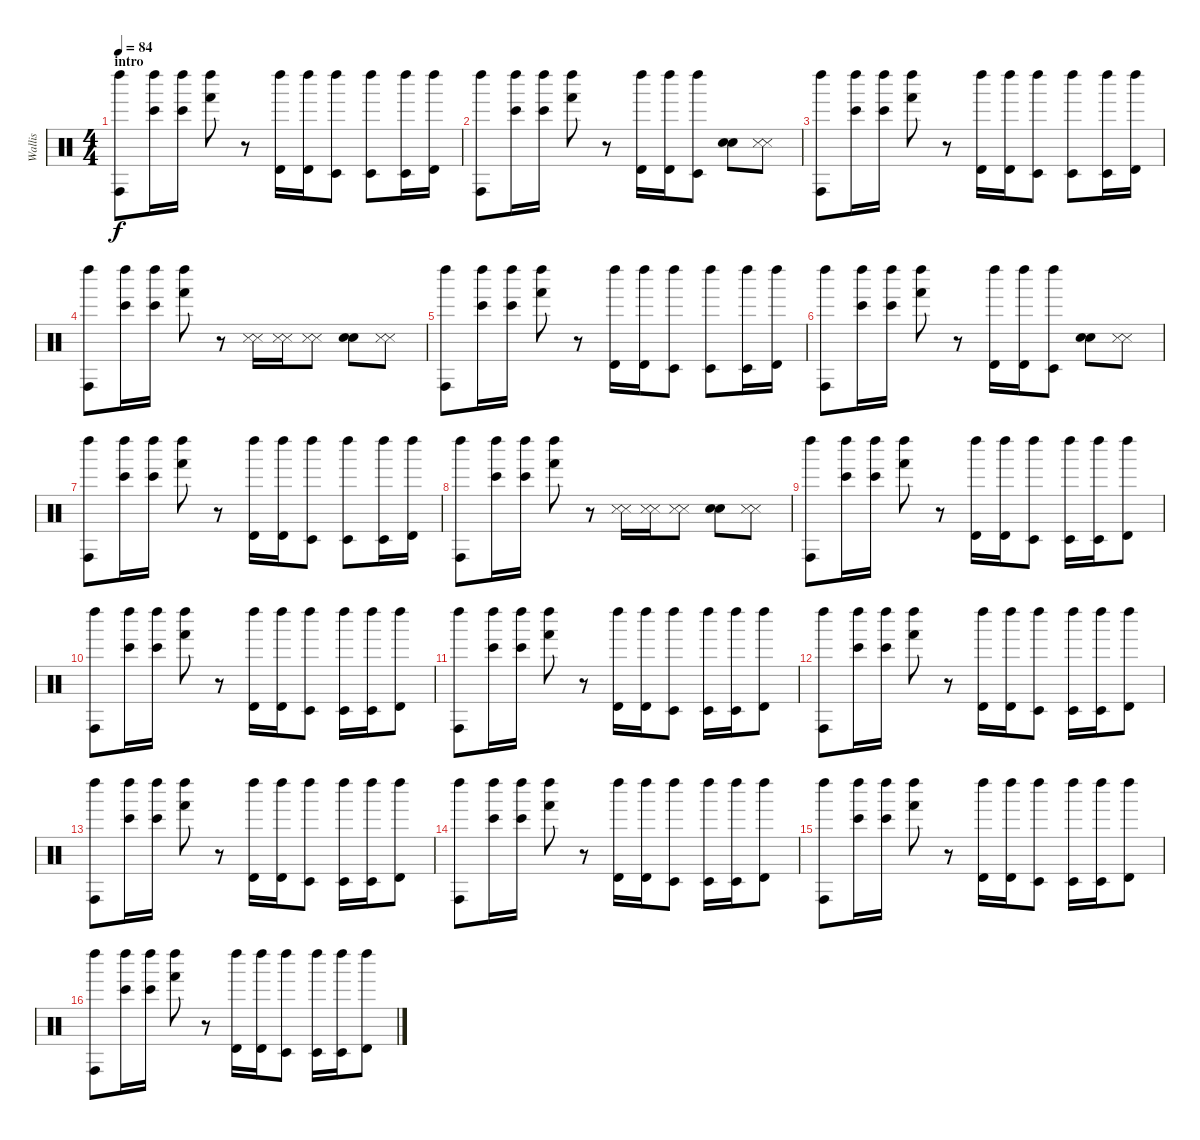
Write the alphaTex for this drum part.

\track ("Wallis" "Wallis") {instrument percussion}
\staff {score}
\articulation defaults
\ts (4 4)
\section ("" "intro")
\tempo 84
\clef neutral
\ks c
("Left Maraca (hit)" "Conga high (hit)").8{dy f} ("Left Maraca (hit)" "Bongo High (hit)").16 ("Left Maraca (hit)" "Bongo High (hit)").16 ("Left Maraca (hit)" "Hand (hit)").8 r.8 ("Left Maraca (hit)" "Timbale high (hit)").16 ("Left Maraca (hit)" "Timbale high (hit)").16 ("Left Maraca (hit)" "Timbale low (hit)").8 ("Left Maraca (hit)" "Timbale low (hit)").8 ("Left Maraca (hit)" "Timbale low (hit)").16 ("Left Maraca (hit)" "Timbale high (hit)").16 |
("Left Maraca (hit)" "Conga high (hit)").8 ("Left Maraca (hit)" "Bongo High (hit)").16 ("Left Maraca (hit)" "Bongo High (hit)").16 ("Left Maraca (hit)" "Hand (hit)").8 r.8 ("Left Maraca (hit)" "Timbale high (hit)").16 ("Left Maraca (hit)" "Timbale high (hit)").16 ("Left Maraca (hit)" "Timbale low (hit)").8 ("Snare (hit) 2" "Snare (hit) 2").8 ("Snare (side stick) 3" "Snare (side stick) 3").8 |
("Left Maraca (hit)" "Conga high (hit)").8 ("Left Maraca (hit)" "Bongo High (hit)").16 ("Left Maraca (hit)" "Bongo High (hit)").16 ("Left Maraca (hit)" "Hand (hit)").8 r.8 ("Left Maraca (hit)" "Timbale high (hit)").16 ("Left Maraca (hit)" "Timbale high (hit)").16 ("Left Maraca (hit)" "Timbale low (hit)").8 ("Left Maraca (hit)" "Timbale low (hit)").8 ("Left Maraca (hit)" "Timbale low (hit)").16 ("Left Maraca (hit)" "Timbale high (hit)").16 |
("Left Maraca (hit)" "Conga high (hit)").8 ("Left Maraca (hit)" "Bongo High (hit)").16 ("Left Maraca (hit)" "Bongo High (hit)").16 ("Left Maraca (hit)" "Hand (hit)").8 r.8 ("Snare (side stick) 3" "Snare (side stick) 3").16 ("Snare (side stick) 3" "Snare (side stick) 3").16 ("Snare (side stick) 3" "Snare (side stick) 3").8 ("Snare (hit) 2" "Snare (hit) 2").8 ("Snare (side stick) 3" "Snare (side stick) 3").8 |
("Left Maraca (hit)" "Conga high (hit)").8 ("Left Maraca (hit)" "Bongo High (hit)").16 ("Left Maraca (hit)" "Bongo High (hit)").16 ("Left Maraca (hit)" "Hand (hit)").8 r.8 ("Left Maraca (hit)" "Timbale high (hit)").16 ("Left Maraca (hit)" "Timbale high (hit)").16 ("Left Maraca (hit)" "Timbale low (hit)").8 ("Left Maraca (hit)" "Timbale low (hit)").8 ("Left Maraca (hit)" "Timbale low (hit)").16 ("Left Maraca (hit)" "Timbale high (hit)").16 |
("Left Maraca (hit)" "Conga high (hit)").8 ("Left Maraca (hit)" "Bongo High (hit)").16 ("Left Maraca (hit)" "Bongo High (hit)").16 ("Left Maraca (hit)" "Hand (hit)").8 r.8 ("Left Maraca (hit)" "Timbale high (hit)").16 ("Left Maraca (hit)" "Timbale high (hit)").16 ("Left Maraca (hit)" "Timbale low (hit)").8 ("Snare (hit) 2" "Snare (hit) 2").8 ("Snare (side stick) 3" "Snare (side stick) 3").8 |
("Left Maraca (hit)" "Conga high (hit)").8 ("Left Maraca (hit)" "Bongo High (hit)").16 ("Left Maraca (hit)" "Bongo High (hit)").16 ("Left Maraca (hit)" "Hand (hit)").8 r.8 ("Left Maraca (hit)" "Timbale high (hit)").16 ("Left Maraca (hit)" "Timbale high (hit)").16 ("Left Maraca (hit)" "Timbale low (hit)").8 ("Left Maraca (hit)" "Timbale low (hit)").8 ("Left Maraca (hit)" "Timbale low (hit)").16 ("Left Maraca (hit)" "Timbale high (hit)").16 |
("Left Maraca (hit)" "Conga high (hit)").8 ("Left Maraca (hit)" "Bongo High (hit)").16 ("Left Maraca (hit)" "Bongo High (hit)").16 ("Left Maraca (hit)" "Hand (hit)").8 r.8 ("Snare (side stick) 3" "Snare (side stick) 3").16 ("Snare (side stick) 3" "Snare (side stick) 3").16 ("Snare (side stick) 3" "Snare (side stick) 3").8 ("Snare (hit) 2" "Snare (hit) 2").8 ("Snare (side stick) 3" "Snare (side stick) 3").8 |
("Left Maraca (hit)" "Conga high (hit)").8 ("Left Maraca (hit)" "Bongo High (hit)").16 ("Left Maraca (hit)" "Bongo High (hit)").16 ("Left Maraca (hit)" "Hand (hit)").8 r.8 ("Left Maraca (hit)" "Timbale high (hit)").16 ("Left Maraca (hit)" "Timbale high (hit)").16 ("Left Maraca (hit)" "Timbale low (hit)").8 ("Left Maraca (hit)" "Timbale low (hit)").16 ("Left Maraca (hit)" "Timbale low (hit)").16 ("Left Maraca (hit)" "Timbale high (hit)").8 |
("Left Maraca (hit)" "Conga high (hit)").8 ("Left Maraca (hit)" "Bongo High (hit)").16 ("Left Maraca (hit)" "Bongo High (hit)").16 ("Left Maraca (hit)" "Hand (hit)").8 r.8 ("Left Maraca (hit)" "Timbale high (hit)").16 ("Left Maraca (hit)" "Timbale high (hit)").16 ("Left Maraca (hit)" "Timbale low (hit)").8 ("Left Maraca (hit)" "Timbale low (hit)").16 ("Left Maraca (hit)" "Timbale low (hit)").16 ("Left Maraca (hit)" "Timbale high (hit)").8 |
("Left Maraca (hit)" "Conga high (hit)").8 ("Left Maraca (hit)" "Bongo High (hit)").16 ("Left Maraca (hit)" "Bongo High (hit)").16 ("Left Maraca (hit)" "Hand (hit)").8 r.8 ("Left Maraca (hit)" "Timbale high (hit)").16 ("Left Maraca (hit)" "Timbale high (hit)").16 ("Left Maraca (hit)" "Timbale low (hit)").8 ("Left Maraca (hit)" "Timbale low (hit)").16 ("Left Maraca (hit)" "Timbale low (hit)").16 ("Left Maraca (hit)" "Timbale high (hit)").8 |
("Left Maraca (hit)" "Conga high (hit)").8 ("Left Maraca (hit)" "Bongo High (hit)").16 ("Left Maraca (hit)" "Bongo High (hit)").16 ("Left Maraca (hit)" "Hand (hit)").8 r.8 ("Left Maraca (hit)" "Timbale high (hit)").16 ("Left Maraca (hit)" "Timbale high (hit)").16 ("Left Maraca (hit)" "Timbale low (hit)").8 ("Left Maraca (hit)" "Timbale low (hit)").16 ("Left Maraca (hit)" "Timbale low (hit)").16 ("Left Maraca (hit)" "Timbale high (hit)").8 |
("Left Maraca (hit)" "Conga high (hit)").8 ("Left Maraca (hit)" "Bongo High (hit)").16 ("Left Maraca (hit)" "Bongo High (hit)").16 ("Left Maraca (hit)" "Hand (hit)").8 r.8 ("Left Maraca (hit)" "Timbale high (hit)").16 ("Left Maraca (hit)" "Timbale high (hit)").16 ("Left Maraca (hit)" "Timbale low (hit)").8 ("Left Maraca (hit)" "Timbale low (hit)").16 ("Left Maraca (hit)" "Timbale low (hit)").16 ("Left Maraca (hit)" "Timbale high (hit)").8 |
("Left Maraca (hit)" "Conga high (hit)").8 ("Left Maraca (hit)" "Bongo High (hit)").16 ("Left Maraca (hit)" "Bongo High (hit)").16 ("Left Maraca (hit)" "Hand (hit)").8 r.8 ("Left Maraca (hit)" "Timbale high (hit)").16 ("Left Maraca (hit)" "Timbale high (hit)").16 ("Left Maraca (hit)" "Timbale low (hit)").8 ("Left Maraca (hit)" "Timbale low (hit)").16 ("Left Maraca (hit)" "Timbale low (hit)").16 ("Left Maraca (hit)" "Timbale high (hit)").8 |
("Left Maraca (hit)" "Conga high (hit)").8 ("Left Maraca (hit)" "Bongo High (hit)").16 ("Left Maraca (hit)" "Bongo High (hit)").16 ("Left Maraca (hit)" "Hand (hit)").8 r.8 ("Left Maraca (hit)" "Timbale high (hit)").16 ("Left Maraca (hit)" "Timbale high (hit)").16 ("Left Maraca (hit)" "Timbale low (hit)").8 ("Left Maraca (hit)" "Timbale low (hit)").16 ("Left Maraca (hit)" "Timbale low (hit)").16 ("Left Maraca (hit)" "Timbale high (hit)").8 |
("Left Maraca (hit)" "Conga high (hit)").8 ("Left Maraca (hit)" "Bongo High (hit)").16 ("Left Maraca (hit)" "Bongo High (hit)").16 ("Left Maraca (hit)" "Hand (hit)").8 r.8 ("Left Maraca (hit)" "Timbale high (hit)").16 ("Left Maraca (hit)" "Timbale high (hit)").16 ("Left Maraca (hit)" "Timbale low (hit)").8 ("Left Maraca (hit)" "Timbale low (hit)").16 ("Left Maraca (hit)" "Timbale low (hit)").16 ("Left Maraca (hit)" "Timbale high (hit)").8
